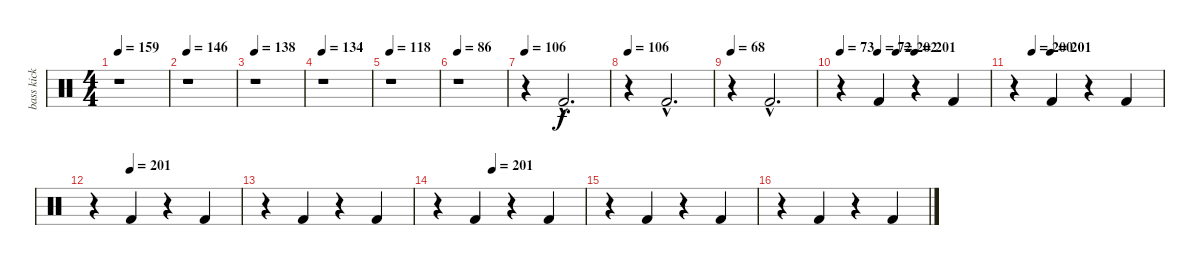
\track ("bass kick" "bass kick") {instrument percussion}
\staff {score}
\articulation defaults
\ts (4 4)
\tempo 159
\clef neutral
\ks c
r.1{dy f} |
\tempo 146
r.1 |
\tempo 138
r.1 |
\tempo 134
r.1 |
\tempo 118
r.1 |
\tempo 86
r.1 |
\tempo 106
r.4 "Kick (hit) 2"{hac}.2{d} |
\tempo 106
r.4 "Kick (hit) 2"{hac}.2{d} |
\tempo 68
r.4 "Kick (hit) 2"{hac}.2{d} |
\tempo 73
\tempo (72 0.25)
\tempo (202 0.375)
\tempo (201 0.5)
r.4 "Kick (hit) 2".4 r.4 "Kick (hit) 2".4 |
\tempo (200 0.125)
\tempo (201 0.25)
r.4 "Kick (hit) 2".4 r.4 "Kick (hit) 2".4 |
\tempo (201 0.25)
r.4 "Kick (hit) 2".4 r.4 "Kick (hit) 2".4 |
r.4 "Kick (hit) 2".4 r.4 "Kick (hit) 2".4 |
\tempo (201 0.375)
r.4 "Kick (hit) 2".4 r.4 "Kick (hit) 2".4 |
r.4 "Kick (hit) 2".4 r.4 "Kick (hit) 2".4 |
r.4 "Kick (hit) 2".4 r.4 "Kick (hit) 2".4
